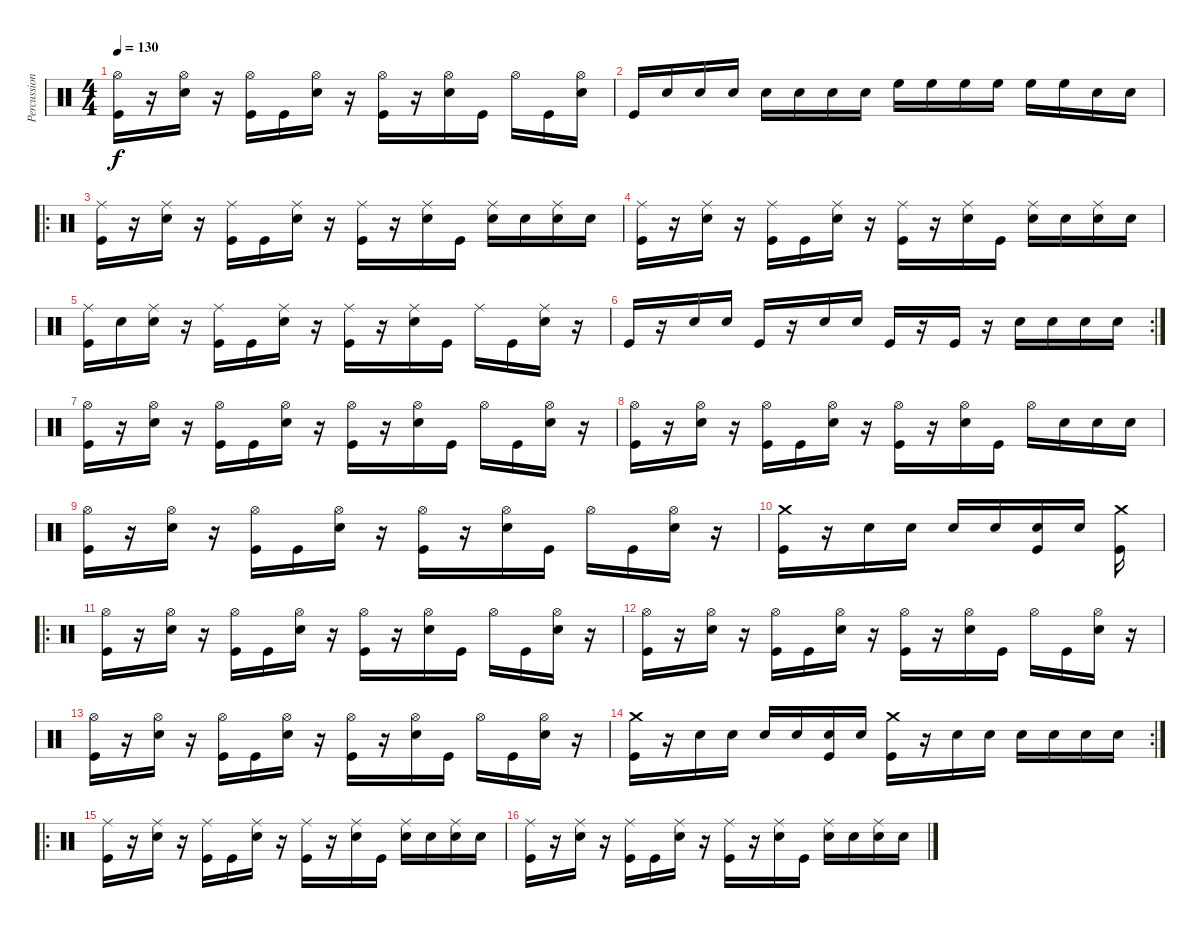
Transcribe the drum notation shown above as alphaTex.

\track ("Percussion" "Percussion") {instrument percussion}
\staff {score}
\articulation defaults
\ts (4 4)
\tempo 130
\clef neutral
\ks c
("Hi-Hat (open)" "Kick (hit)").16{dy f} r.16 ("Hi-Hat (open)" "Electric Snare (hit)").16 r.16 ("Hi-Hat (open)" "Kick (hit)").16 "Kick (hit)".16 ("Hi-Hat (open)" "Electric Snare (hit)").16 r.16 ("Hi-Hat (open)" "Kick (hit)").16 r.16 ("Hi-Hat (open)" "Electric Snare (hit)").16 "Kick (hit)".16 "Hi-Hat (open)".16 "Kick (hit)".16 ("Hi-Hat (open)" "Electric Snare (hit)").16 |
"Kick (hit)".16 "Electric Snare (hit)".16 "Electric Snare (hit)".16 "Electric Snare (hit)".16 "Electric Snare (hit)".16 "Electric Snare (hit)".16 "Electric Snare (hit)".16 "Electric Snare (hit)".16 "High Floor Tom (hit)".16 "High Floor Tom (hit)".16 "High Floor Tom (hit)".16 "High Floor Tom (hit)".16 "High Floor Tom (hit)".16 "High Floor Tom (hit)".16 "Electric Snare (hit)".16 "Electric Snare (hit)".16 |
\ro
("Ride (middle)" "Kick (hit)").16 r.16 ("Ride (middle)" "Electric Snare (hit)").16 r.16 ("Ride (middle)" "Kick (hit)").16 "Kick (hit)".16 ("Ride (middle)" "Electric Snare (hit)").16 r.16 ("Ride (middle)" "Kick (hit)").16 r.16 ("Ride (middle)" "Electric Snare (hit)").16 "Kick (hit)".16 ("Ride (middle)" "Snare (hit)").16 "Electric Snare (hit)".16 ("Ride (middle)" "Electric Snare (hit)").16 "Electric Snare (hit)".16 |
("Ride (middle)" "Kick (hit)").16 r.16 ("Ride (middle)" "Electric Snare (hit)").16 r.16 ("Ride (middle)" "Kick (hit)").16 "Kick (hit)".16 ("Ride (middle)" "Electric Snare (hit)").16 r.16 ("Ride (middle)" "Kick (hit)").16 r.16 ("Ride (middle)" "Electric Snare (hit)").16 "Kick (hit)".16 ("Ride (middle)" "Snare (hit)").16 "Electric Snare (hit)".16 ("Ride (middle)" "Electric Snare (hit)").16 "Electric Snare (hit)".16 |
("Ride (middle)" "Kick (hit)").16 "Snare (hit)".16 ("Ride (middle)" "Electric Snare (hit)").16 r.16 ("Ride (middle)" "Kick (hit)").16 "Kick (hit)".16 ("Ride (middle)" "Electric Snare (hit)").16 r.16 ("Ride (middle)" "Kick (hit)").16 r.16 ("Ride (middle)" "Electric Snare (hit)").16 "Kick (hit)".16 "Ride (middle)".16 "Kick (hit)".16 ("Ride (middle)" "Electric Snare (hit)").16 r.16 |
\rc 2 "Kick (hit)".16
r.16 "Electric Snare (hit)".16 "Electric Snare (hit)".16 "Kick (hit)".16 r.16 "Electric Snare (hit)".16 "Electric Snare (hit)".16 "Kick (hit)".16 r.16 "Kick (hit)".16 r.16 "Electric Snare (hit)".16 "Electric Snare (hit)".16 "Electric Snare (hit)".16 "Electric Snare (hit)".16 |
("Hi-Hat (open)" "Kick (hit)").16 r.16 ("Hi-Hat (open)" "Electric Snare (hit)").16 r.16 ("Hi-Hat (open)" "Kick (hit)").16 "Kick (hit)".16 ("Hi-Hat (open)" "Electric Snare (hit)").16 r.16 ("Hi-Hat (open)" "Kick (hit)").16 r.16 ("Hi-Hat (open)" "Electric Snare (hit)").16 "Kick (hit)".16 "Hi-Hat (open)".16 "Kick (hit)".16 ("Hi-Hat (open)" "Electric Snare (hit)").16 r.16 |
("Hi-Hat (open)" "Kick (hit)").16 r.16 ("Hi-Hat (open)" "Electric Snare (hit)").16 r.16 ("Hi-Hat (open)" "Kick (hit)").16 "Kick (hit)".16 ("Hi-Hat (open)" "Electric Snare (hit)").16 r.16 ("Hi-Hat (open)" "Kick (hit)").16 r.16 ("Hi-Hat (open)" "Electric Snare (hit)").16 "Kick (hit)".16 "Hi-Hat (open)".16 "Electric Snare (hit)".16 "Electric Snare (hit)".16 "Electric Snare (hit)".16 |
("Hi-Hat (open)" "Kick (hit)").16 r.16 ("Hi-Hat (open)" "Electric Snare (hit)").16 r.16 ("Hi-Hat (open)" "Kick (hit)").16 "Kick (hit)".16 ("Hi-Hat (open)" "Electric Snare (hit)").16 r.16 ("Hi-Hat (open)" "Kick (hit)").16 r.16 ("Hi-Hat (open)" "Electric Snare (hit)").16 "Kick (hit)".16 "Hi-Hat (open)".16 "Kick (hit)".16 ("Hi-Hat (open)" "Electric Snare (hit)").16 r.16 |
("Crash medium (hit)" "Kick (hit)").16 r.16 "Electric Snare (hit)".16 "Electric Snare (hit)".16 "Electric Snare (hit)".16 "Electric Snare (hit)".16 ("Electric Snare (hit)" "Kick (hit)").16 "Electric Snare (hit)".16 ("Crash medium (hit)" "Kick (hit)").16 |
\ro
("Hi-Hat (open)" "Kick (hit)").16 r.16 ("Hi-Hat (open)" "Electric Snare (hit)").16 r.16 ("Hi-Hat (open)" "Kick (hit)").16 "Kick (hit)".16 ("Hi-Hat (open)" "Electric Snare (hit)").16 r.16 ("Hi-Hat (open)" "Kick (hit)").16 r.16 ("Hi-Hat (open)" "Electric Snare (hit)").16 "Kick (hit)".16 "Hi-Hat (open)".16 "Kick (hit)".16 ("Hi-Hat (open)" "Electric Snare (hit)").16 r.16 |
("Hi-Hat (open)" "Kick (hit)").16 r.16 ("Hi-Hat (open)" "Electric Snare (hit)").16 r.16 ("Hi-Hat (open)" "Kick (hit)").16 "Kick (hit)".16 ("Hi-Hat (open)" "Electric Snare (hit)").16 r.16 ("Hi-Hat (open)" "Kick (hit)").16 r.16 ("Hi-Hat (open)" "Electric Snare (hit)").16 "Kick (hit)".16 "Hi-Hat (open)".16 "Kick (hit)".16 ("Hi-Hat (open)" "Electric Snare (hit)").16 r.16 |
("Hi-Hat (open)" "Kick (hit)").16 r.16 ("Hi-Hat (open)" "Electric Snare (hit)").16 r.16 ("Hi-Hat (open)" "Kick (hit)").16 "Kick (hit)".16 ("Hi-Hat (open)" "Electric Snare (hit)").16 r.16 ("Hi-Hat (open)" "Kick (hit)").16 r.16 ("Hi-Hat (open)" "Electric Snare (hit)").16 "Kick (hit)".16 "Hi-Hat (open)".16 "Kick (hit)".16 ("Hi-Hat (open)" "Electric Snare (hit)").16 r.16 |
\rc 2
("Crash medium (hit)" "Kick (hit)").16 r.16 "Electric Snare (hit)".16 "Electric Snare (hit)".16 "Electric Snare (hit)".16 "Electric Snare (hit)".16 ("Electric Snare (hit)" "Kick (hit)").16 "Electric Snare (hit)".16 ("Crash medium (hit)" "Kick (hit)").16 r.16 "Electric Snare (hit)".16 "Electric Snare (hit)".16 "Electric Snare (hit)".16 "Electric Snare (hit)".16 "Electric Snare (hit)".16 "Electric Snare (hit)".16 |
\ro
("Ride (middle)" "Kick (hit)").16 r.16 ("Ride (middle)" "Electric Snare (hit)").16 r.16 ("Ride (middle)" "Kick (hit)").16 "Kick (hit)".16 ("Ride (middle)" "Electric Snare (hit)").16 r.16 ("Ride (middle)" "Kick (hit)").16 r.16 ("Ride (middle)" "Electric Snare (hit)").16 "Kick (hit)".16 ("Ride (middle)" "Snare (hit)").16 "Electric Snare (hit)".16 ("Ride (middle)" "Electric Snare (hit)").16 "Electric Snare (hit)".16 |
("Ride (middle)" "Kick (hit)").16 r.16 ("Ride (middle)" "Electric Snare (hit)").16 r.16 ("Ride (middle)" "Kick (hit)").16 "Kick (hit)".16 ("Ride (middle)" "Electric Snare (hit)").16 r.16 ("Ride (middle)" "Kick (hit)").16 r.16 ("Ride (middle)" "Electric Snare (hit)").16 "Kick (hit)".16 ("Ride (middle)" "Snare (hit)").16 "Electric Snare (hit)".16 ("Ride (middle)" "Electric Snare (hit)").16 "Electric Snare (hit)".16
